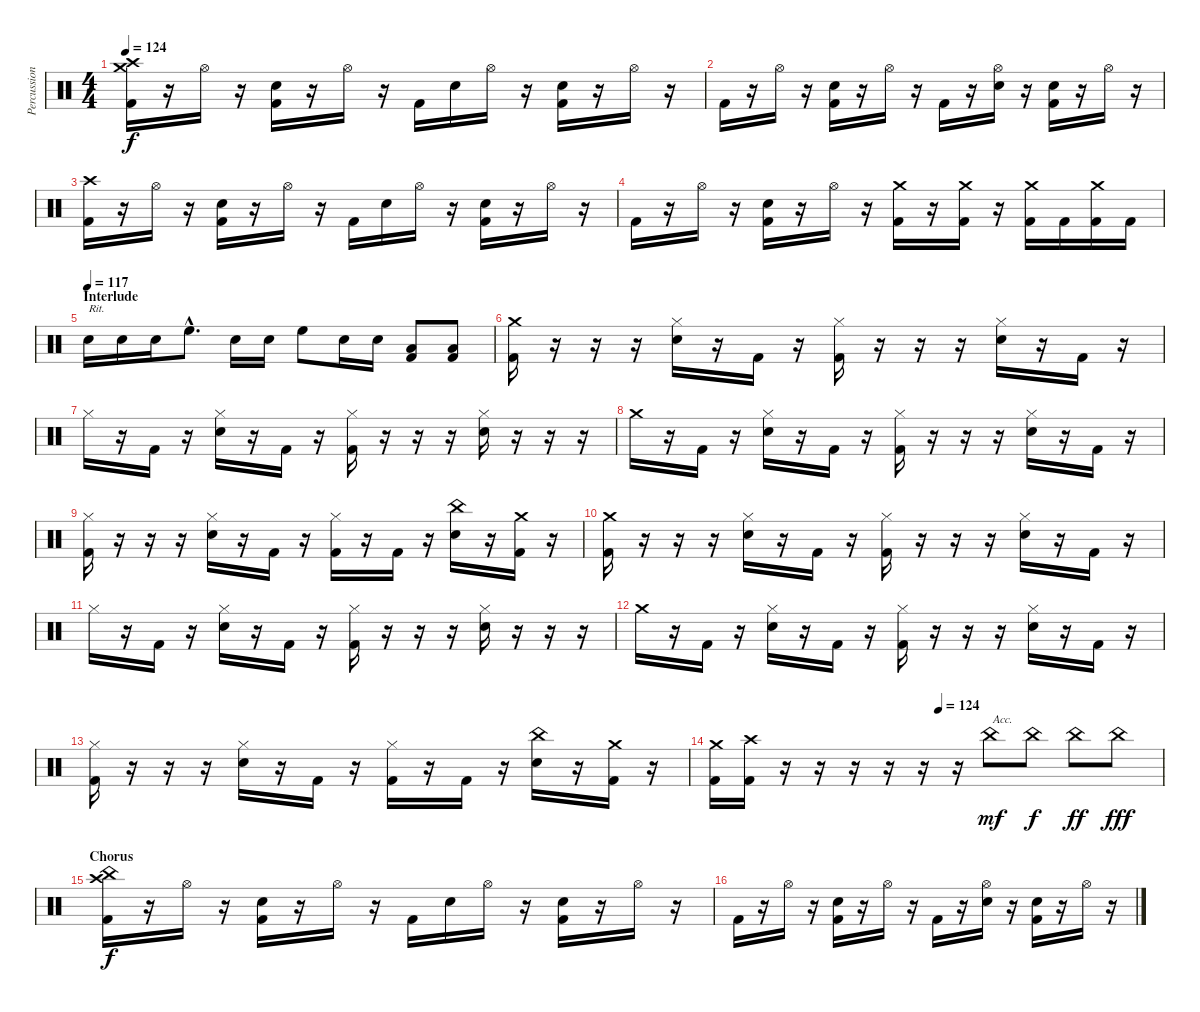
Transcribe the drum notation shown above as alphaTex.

\track ("Percussion" "Percussion") {instrument percussion}
\staff {score}
\articulation defaults
\ts (4 4)
\tempo 124
\clef neutral
\ks c
("Crash high (hit)" "Crash medium (hit)" "Kick (hit) 2").16{dy f} r.16 "Hi-Hat (open)".16 r.16 ("Snare (hit) 2" "Kick (hit) 2").16 r.16 "Hi-Hat (open)".16 r.16 "Kick (hit) 2".16 "Snare (hit) 2".16 "Hi-Hat (open)".16 r.16 ("Snare (hit) 2" "Kick (hit) 2").16 r.16 "Hi-Hat (open)".16 r.16 |
"Kick (hit) 2".16 r.16 "Hi-Hat (open)".16 r.16 ("Snare (hit) 2" "Kick (hit) 2").16 r.16 "Hi-Hat (open)".16 r.16 "Kick (hit) 2".16 r.16 ("Hi-Hat (open)" "Snare (hit) 2").16 r.16 ("Snare (hit) 2" "Kick (hit) 2").16 r.16 "Hi-Hat (open)".16 r.16 |
("Crash high (hit)" "Kick (hit) 2").16 r.16 "Hi-Hat (open)".16 r.16 ("Snare (hit) 2" "Kick (hit) 2").16 r.16 "Hi-Hat (open)".16 r.16 "Kick (hit) 2".16 "Snare (hit) 2".16 "Hi-Hat (open)".16 r.16 ("Snare (hit) 2" "Kick (hit) 2").16 r.16 "Hi-Hat (open)".16 r.16 |
"Kick (hit) 2".16 r.16 "Hi-Hat (open)".16 r.16 ("Snare (hit) 2" "Kick (hit) 2").16 r.16 "Hi-Hat (open)".16 r.16 ("Crash medium (hit)" "Kick (hit) 2").16 r.16 ("Crash medium (hit)" "Kick (hit) 2").16 r.16 ("Crash medium (hit)" "Kick (hit) 2").16 "Kick (hit) 2".16 ("Crash medium (hit)" "Kick (hit) 2").16 "Kick (hit) 2".16 |
\section ("" "Interlude")
\tempo (117)
"Snare (hit) 2".16{txt "Rit."} "Snare (hit) 2".16 "Snare (hit) 2".16 "High Floor Tom (hit)"{hac}.8{d} "Snare (hit) 2".16 "Snare (hit) 2".16 "High Floor Tom (hit)".8 "Snare (hit) 2".16 "Snare (hit) 2".16 ("Low Tom (hit)" "Kick (hit) 2").8 ("Low Floor Tom (hit)" "Kick (hit) 2").8 |
("Crash medium (hit)" "Kick (hit) 2").16 r.16 r.16 r.16 ("Hi-Hat (closed)" "Snare (hit) 2").16 r.16 "Kick (hit) 2".16 r.16 ("Hi-Hat (closed)" "Kick (hit) 2").16 r.16 r.16 r.16 ("Hi-Hat (closed)" "Snare (hit) 2").16 r.16 "Kick (hit) 2".16 r.16 |
"Hi-Hat (closed)".16 r.16 "Kick (hit) 2".16 r.16 ("Hi-Hat (closed)" "Snare (hit) 2").16 r.16 "Kick (hit) 2".16 r.16 ("Hi-Hat (closed)" "Kick (hit) 2").16 r.16 r.16 r.16 ("Hi-Hat (closed)" "Snare (hit) 2").16 r.16 r.16 r.16 |
"Crash medium (hit)".16 r.16 "Kick (hit) 2".16 r.16 ("Hi-Hat (closed)" "Snare (hit) 2").16 r.16 "Kick (hit) 2".16 r.16 ("Hi-Hat (closed)" "Kick (hit) 2").16 r.16 r.16 r.16 ("Hi-Hat (closed)" "Snare (hit) 2").16 r.16 "Kick (hit) 2".16 r.16 |
("Hi-Hat (closed)" "Kick (hit) 2").16 r.16 r.16 r.16 ("Hi-Hat (closed)" "Snare (hit) 2").16 r.16 "Kick (hit) 2".16 r.16 ("Hi-Hat (closed)" "Kick (hit) 2").16 r.16 "Kick (hit) 2".16 r.16 ("China (hit)" "Snare (hit) 2").16 r.16 ("Crash medium (hit)" "Kick (hit) 2").16 r.16 |
("Crash medium (hit)" "Kick (hit) 2").16 r.16 r.16 r.16 ("Hi-Hat (closed)" "Snare (hit) 2").16 r.16 "Kick (hit) 2".16 r.16 ("Hi-Hat (closed)" "Kick (hit) 2").16 r.16 r.16 r.16 ("Hi-Hat (closed)" "Snare (hit) 2").16 r.16 "Kick (hit) 2".16 r.16 |
"Hi-Hat (closed)".16 r.16 "Kick (hit) 2".16 r.16 ("Hi-Hat (closed)" "Snare (hit) 2").16 r.16 "Kick (hit) 2".16 r.16 ("Hi-Hat (closed)" "Kick (hit) 2").16 r.16 r.16 r.16 ("Hi-Hat (closed)" "Snare (hit) 2").16 r.16 r.16 r.16 |
"Crash medium (hit)".16 r.16 "Kick (hit) 2".16 r.16 ("Hi-Hat (closed)" "Snare (hit) 2").16 r.16 "Kick (hit) 2".16 r.16 ("Hi-Hat (closed)" "Kick (hit) 2").16 r.16 r.16 r.16 ("Hi-Hat (closed)" "Snare (hit) 2").16 r.16 "Kick (hit) 2".16 r.16 |
("Hi-Hat (closed)" "Kick (hit) 2").16 r.16 r.16 r.16 ("Hi-Hat (closed)" "Snare (hit) 2").16 r.16 "Kick (hit) 2".16 r.16 ("Hi-Hat (closed)" "Kick (hit) 2").16 r.16 "Kick (hit) 2".16 r.16 ("China (hit)" "Snare (hit) 2").16 r.16 ("Crash medium (hit)" "Kick (hit) 2").16 r.16 |
\tempo (124 0.5)
("Crash medium (hit)" "Kick (hit) 2").16 ("Crash high (hit)" "Kick (hit) 2").16 r.16 r.16 r.16 r.16 r.16 r.16 "China (hit)".8{txt "Acc." dy mf} "China (hit)".8{dy f} "China (hit)".8{dy ff} "China (hit)".8{dy fff} |
\section ("" "Chorus")
("Crash high (hit)" "China (hit)" "Kick (hit) 2").16{dy f} r.16 "Hi-Hat (open)".16 r.16 ("Snare (hit) 2" "Kick (hit) 2").16 r.16 "Hi-Hat (open)".16 r.16 "Kick (hit) 2".16 "Snare (hit) 2".16 "Hi-Hat (open)".16 r.16 ("Snare (hit) 2" "Kick (hit) 2").16 r.16 "Hi-Hat (open)".16 r.16 |
"Kick (hit) 2".16 r.16 "Hi-Hat (open)".16 r.16 ("Snare (hit) 2" "Kick (hit) 2").16 r.16 "Hi-Hat (open)".16 r.16 "Kick (hit) 2".16 r.16 ("Hi-Hat (open)" "Snare (hit) 2").16 r.16 ("Snare (hit) 2" "Kick (hit) 2").16 r.16 "Hi-Hat (open)".16 r.16
